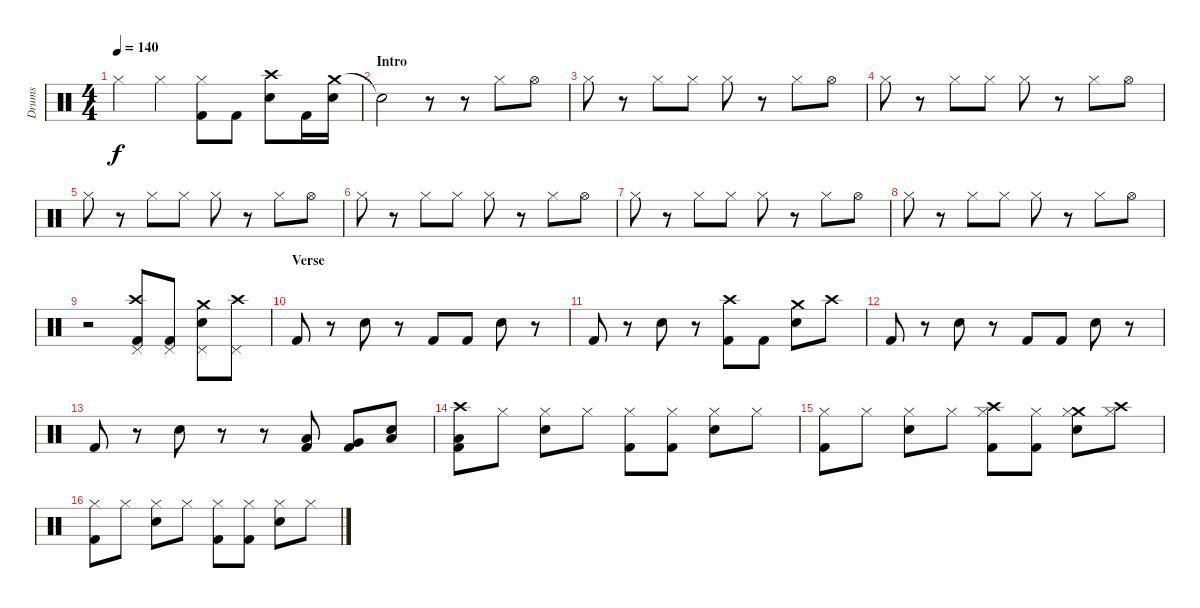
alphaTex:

\track ("Drums" "Drums") {instrument percussion}
\staff {score}
\articulation defaults
\ts (4 4)
\tempo 140
\clef neutral
\ks c "Hi-Hat (closed)".4{dy f} "Hi-Hat (closed)".4
("Hi-Hat (closed)" "Kick (hit) 2").8 "Kick (hit) 2".8 ("Crash high (hit)" "Electric Snare (hit)").8 "Kick (hit) 2".16 ("Crash medium (hit)" "Electric Snare (hit)").16 |
\section ("" "Intro")
"Snare (hit)"{t}.2 r.8 r.8 "Hi-Hat (closed)".8 "Hi-Hat (open)".8 |
"Hi-Hat (closed)".8 r.8 "Hi-Hat (closed)".8 "Hi-Hat (closed)".8 "Hi-Hat (closed)".8 r.8 "Hi-Hat (closed)".8 "Hi-Hat (open)".8 |
"Hi-Hat (closed)".8 r.8 "Hi-Hat (closed)".8 "Hi-Hat (closed)".8 "Hi-Hat (closed)".8 r.8 "Hi-Hat (closed)".8 "Hi-Hat (open)".8 |
"Hi-Hat (closed)".8 r.8 "Hi-Hat (closed)".8 "Hi-Hat (closed)".8 "Hi-Hat (closed)".8 r.8 "Hi-Hat (closed)".8 "Hi-Hat (open)".8 |
"Hi-Hat (closed)".8 r.8 "Hi-Hat (closed)".8 "Hi-Hat (closed)".8 "Hi-Hat (closed)".8 r.8 "Hi-Hat (closed)".8 "Hi-Hat (open)".8 |
"Hi-Hat (closed)".8 r.8 "Hi-Hat (closed)".8 "Hi-Hat (closed)".8 "Hi-Hat (closed)".8 r.8 "Hi-Hat (closed)".8 "Hi-Hat (open)".8 |
"Hi-Hat (closed)".8 r.8 "Hi-Hat (closed)".8 "Hi-Hat (closed)".8 "Hi-Hat (closed)".8 r.8 "Hi-Hat (closed)".8 "Hi-Hat (open)".8 |
r.2 ("Crash high (hit)" "Pedal Hi-Hat (hit)" "Kick (hit) 2").8 ("Pedal Hi-Hat (hit)" "Kick (hit) 2").8 ("Crash medium (hit)" "Pedal Hi-Hat (hit)" "Electric Snare (hit)").8 ("Crash high (hit)" "Pedal Hi-Hat (hit)").8 |
\section ("" "Verse")
"Kick (hit) 2".8 r.8 "Electric Snare (hit)".8 r.8 "Kick (hit) 2".8 "Kick (hit) 2".8 "Electric Snare (hit)".8 r.8 |
"Kick (hit) 2".8 r.8 "Electric Snare (hit)".8 r.8 ("Crash high (hit)" "Kick (hit) 2").8 "Kick (hit) 2".8 ("Crash medium (hit)" "Electric Snare (hit)").8 "Crash high (hit)".8 |
"Kick (hit) 2".8 r.8 "Electric Snare (hit)".8 r.8 "Kick (hit) 2".8 "Kick (hit) 2".8 "Electric Snare (hit)".8 r.8 |
"Kick (hit) 2".8 r.8 "Electric Snare (hit)".8 r.8 r.8 ("Low Tom (hit)" "Kick (hit) 2").8 ("Very Low Tom (hit)" "Kick (hit) 2").8 ("Low Floor Tom (hit)" "Electric Snare (hit)").8 |
("Crash high (hit)" "Low Tom (hit)" "Kick (hit) 2").8 "Hi-Hat (closed)".8 ("Hi-Hat (closed)" "Electric Snare (hit)").8 "Hi-Hat (closed)".8 ("Hi-Hat (closed)" "Kick (hit) 2").8 ("Hi-Hat (closed)" "Kick (hit) 2").8 ("Hi-Hat (closed)" "Electric Snare (hit)").8 "Hi-Hat (closed)".8 |
("Hi-Hat (closed)" "Kick (hit) 2").8 "Hi-Hat (closed)".8 ("Hi-Hat (closed)" "Electric Snare (hit)").8 "Hi-Hat (closed)".8 ("Crash high (hit)" "Hi-Hat (closed)" "Kick (hit) 2").8 ("Hi-Hat (closed)" "Kick (hit) 2").8 ("Crash medium (hit)" "Hi-Hat (closed)" "Electric Snare (hit)").8 ("Crash high (hit)" "Hi-Hat (closed)").8 |
("Hi-Hat (closed)" "Kick (hit) 2").8 "Hi-Hat (closed)".8 ("Hi-Hat (closed)" "Electric Snare (hit)").8 "Hi-Hat (closed)".8 ("Hi-Hat (closed)" "Kick (hit) 2").8 ("Hi-Hat (closed)" "Kick (hit) 2").8 ("Hi-Hat (closed)" "Electric Snare (hit)").8 "Hi-Hat (closed)".8
